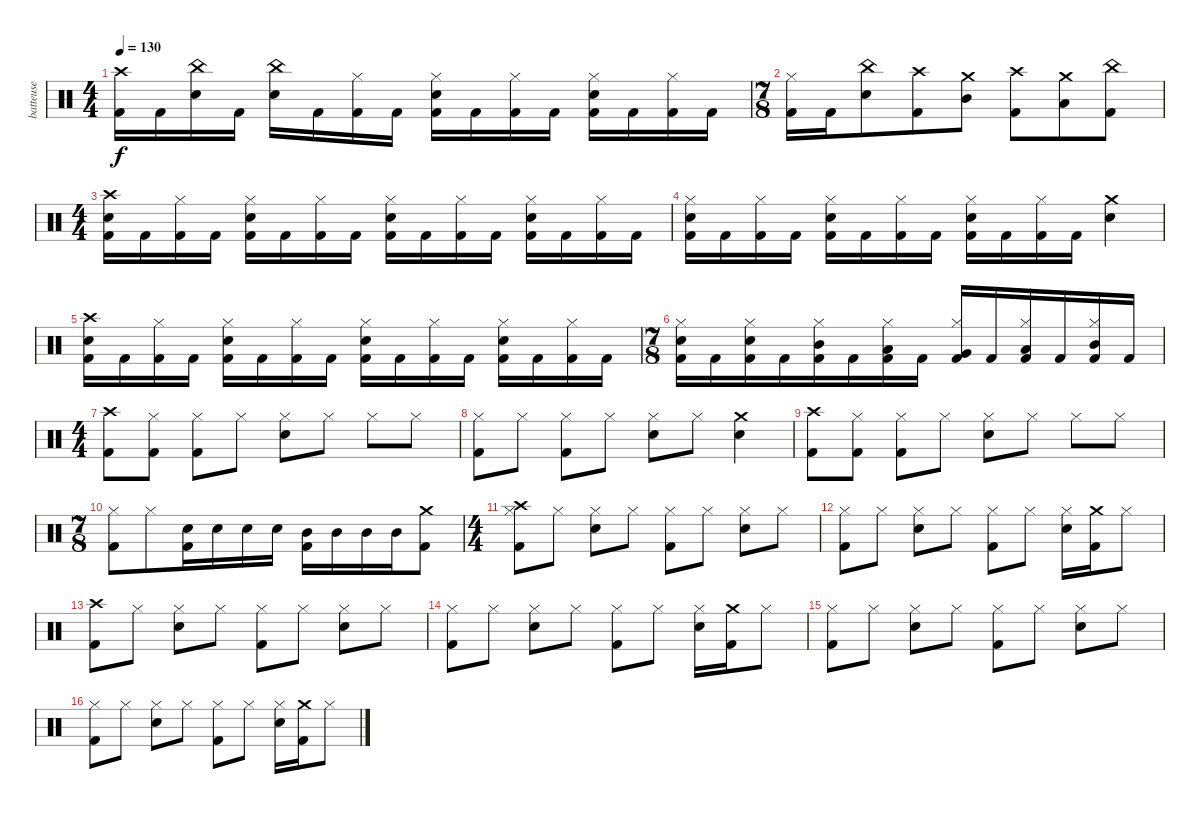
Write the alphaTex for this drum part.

\track ("batteuse" "batteuse") {instrument percussion}
\staff {score}
\articulation defaults
\ts (4 4)
\tempo 130
\clef neutral
\ks c
("Crash high (hit)" "Kick (hit) 2").16{dy f} "Kick (hit) 2".16 ("China (hit)" "Snare (hit) 2").16 "Kick (hit) 2".16 ("China (hit)" "Snare (hit) 2").16 "Kick (hit) 2".16 ("Kick (hit) 2" "Hi-Hat (closed)").16 "Kick (hit) 2".16 ("Snare (hit) 2" "Kick (hit) 2" "Hi-Hat (closed)").16 "Kick (hit) 2".16 ("Kick (hit) 2" "Hi-Hat (closed)").16 "Kick (hit) 2".16 ("Snare (hit) 2" "Kick (hit) 2" "Hi-Hat (closed)").16 "Kick (hit) 2".16 ("Kick (hit) 2" "Hi-Hat (closed)").16 "Kick (hit) 2".16 |
\ts (7 8)
("Kick (hit) 2" "Hi-Hat (closed)").16 "Kick (hit) 2".16 ("China (hit)" "Snare (hit) 2").8 ("Crash high (hit)" "Kick (hit) 2").8 ("Crash medium (hit)" "Mid Tom (hit)").8 ("Crash high (hit)" "Kick (hit) 2").8 ("Crash medium (hit)" "Low Tom (hit)").8 ("China (hit)" "Kick (hit) 2").8 |
\ts (4 4)
("Crash high (hit)" "Snare (hit) 2" "Kick (hit) 2").16 "Kick (hit) 2".16 ("Kick (hit) 2" "Hi-Hat (closed)").16 "Kick (hit) 2".16 ("Snare (hit) 2" "Kick (hit) 2" "Hi-Hat (closed)").16 "Kick (hit) 2".16 ("Kick (hit) 2" "Hi-Hat (closed)").16 "Kick (hit) 2".16 ("Snare (hit) 2" "Kick (hit) 2" "Hi-Hat (closed)").16 "Kick (hit) 2".16 ("Kick (hit) 2" "Hi-Hat (closed)").16 "Kick (hit) 2".16 ("Snare (hit) 2" "Kick (hit) 2" "Hi-Hat (closed)").16 "Kick (hit) 2".16 ("Kick (hit) 2" "Hi-Hat (closed)").16 "Kick (hit) 2".16 |
("Snare (hit) 2" "Kick (hit) 2" "Hi-Hat (closed)").16 "Kick (hit) 2".16 ("Kick (hit) 2" "Hi-Hat (closed)").16 "Kick (hit) 2".16 ("Snare (hit) 2" "Kick (hit) 2" "Hi-Hat (closed)").16 "Kick (hit) 2".16 ("Kick (hit) 2" "Hi-Hat (closed)").16 "Kick (hit) 2".16 ("Snare (hit) 2" "Kick (hit) 2" "Hi-Hat (closed)").16 "Kick (hit) 2".16 ("Kick (hit) 2" "Hi-Hat (closed)").16 "Kick (hit) 2".16 ("Crash medium (hit)" "Snare (hit) 2").4 |
("Crash high (hit)" "Snare (hit) 2" "Kick (hit) 2").16 "Kick (hit) 2".16 ("Kick (hit) 2" "Hi-Hat (closed)").16 "Kick (hit) 2".16 ("Snare (hit) 2" "Kick (hit) 2" "Hi-Hat (closed)").16 "Kick (hit) 2".16 ("Kick (hit) 2" "Hi-Hat (closed)").16 "Kick (hit) 2".16 ("Snare (hit) 2" "Kick (hit) 2" "Hi-Hat (closed)").16 "Kick (hit) 2".16 ("Kick (hit) 2" "Hi-Hat (closed)").16 "Kick (hit) 2".16 ("Snare (hit) 2" "Kick (hit) 2" "Hi-Hat (closed)").16 "Kick (hit) 2".16 ("Kick (hit) 2" "Hi-Hat (closed)").16 "Kick (hit) 2".16 |
\ts (7 8)
("Snare (hit) 2" "Kick (hit) 2" "Hi-Hat (closed)").16 "Kick (hit) 2".16 ("Snare (hit) 2" "Kick (hit) 2" "Hi-Hat (closed)").16 "Kick (hit) 2".16 ("Mid Tom (hit)" "Kick (hit) 2" "Hi-Hat (closed)").16 "Kick (hit) 2".16 ("Low Tom (hit)" "Kick (hit) 2" "Hi-Hat (closed)").16 "Kick (hit) 2".16 ("Very Low Tom (hit)" "Kick (hit) 2" "Hi-Hat (closed)").16 "Kick (hit) 2".16 ("Low Tom (hit)" "Kick (hit) 2" "Hi-Hat (closed)").16 "Kick (hit) 2".16 ("Mid Tom (hit)" "Kick (hit) 2" "Hi-Hat (closed)").16 "Kick (hit) 2".16 |
\ts (4 4)
("Crash high (hit)" "Kick (hit) 2").8 ("Kick (hit) 2" "Hi-Hat (closed)").8 ("Kick (hit) 2" "Hi-Hat (closed)").8 "Hi-Hat (closed)".8 ("Snare (hit) 2" "Hi-Hat (closed)").8 "Hi-Hat (closed)".8 "Hi-Hat (closed)".8 "Hi-Hat (closed)".8 |
("Kick (hit) 2" "Hi-Hat (closed)").8 "Hi-Hat (closed)".8 ("Kick (hit) 2" "Hi-Hat (closed)").8 "Hi-Hat (closed)".8 ("Snare (hit) 2" "Hi-Hat (closed)").8 "Hi-Hat (closed)".8 ("Crash medium (hit)" "Snare (hit) 2").4 |
("Crash high (hit)" "Kick (hit) 2").8 ("Kick (hit) 2" "Hi-Hat (closed)").8 ("Kick (hit) 2" "Hi-Hat (closed)").8 "Hi-Hat (closed)".8 ("Snare (hit) 2" "Hi-Hat (closed)").8 "Hi-Hat (closed)".8 "Hi-Hat (closed)".8 "Hi-Hat (closed)".8 |
\ts (7 8)
("Kick (hit) 2" "Hi-Hat (closed)").8 "Hi-Hat (closed)".8 ("Snare (hit) 2" "Kick (hit) 2").16 "Snare (hit) 2".16 "Snare (hit) 2".16 "Snare (hit) 2".16 ("Mid Tom (hit)" "Kick (hit) 2").16 "Mid Tom (hit)".16 "Mid Tom (hit)".16 "Mid Tom (hit)".16 ("Crash medium (hit)" "Kick (hit) 2").8 |
\ts (4 4)
("Crash high (hit)" "Kick (hit) 2" "Hi-Hat (closed)").8 "Hi-Hat (closed)".8 ("Snare (hit) 2" "Hi-Hat (closed)").8 "Hi-Hat (closed)".8 ("Kick (hit) 2" "Hi-Hat (closed)").8 "Hi-Hat (closed)".8 ("Snare (hit) 2" "Hi-Hat (closed)").8 "Hi-Hat (closed)".8 |
("Kick (hit) 2" "Hi-Hat (closed)").8 "Hi-Hat (closed)".8 ("Snare (hit) 2" "Hi-Hat (closed)").8 "Hi-Hat (closed)".8 ("Kick (hit) 2" "Hi-Hat (closed)").8 "Hi-Hat (closed)".8 ("Snare (hit) 2" "Hi-Hat (closed)").16 ("Crash medium (hit)" "Kick (hit) 2").16 "Hi-Hat (closed)".8 |
("Crash high (hit)" "Kick (hit) 2").8 "Hi-Hat (closed)".8 ("Snare (hit) 2" "Hi-Hat (closed)").8 "Hi-Hat (closed)".8 ("Kick (hit) 2" "Hi-Hat (closed)").8 "Hi-Hat (closed)".8 ("Snare (hit) 2" "Hi-Hat (closed)").8 "Hi-Hat (closed)".8 |
("Kick (hit) 2" "Hi-Hat (closed)").8 "Hi-Hat (closed)".8 ("Snare (hit) 2" "Hi-Hat (closed)").8 "Hi-Hat (closed)".8 ("Kick (hit) 2" "Hi-Hat (closed)").8 "Hi-Hat (closed)".8 ("Snare (hit) 2" "Hi-Hat (closed)").16 ("Crash medium (hit)" "Kick (hit) 2").16 "Hi-Hat (closed)".8 |
("Kick (hit) 2" "Hi-Hat (closed)").8 "Hi-Hat (closed)".8 ("Snare (hit) 2" "Hi-Hat (closed)").8 "Hi-Hat (closed)".8 ("Kick (hit) 2" "Hi-Hat (closed)").8 "Hi-Hat (closed)".8 ("Snare (hit) 2" "Hi-Hat (closed)").8 "Hi-Hat (closed)".8 |
("Kick (hit) 2" "Hi-Hat (closed)").8 "Hi-Hat (closed)".8 ("Snare (hit) 2" "Hi-Hat (closed)").8 "Hi-Hat (closed)".8 ("Kick (hit) 2" "Hi-Hat (closed)").8 "Hi-Hat (closed)".8 ("Snare (hit) 2" "Hi-Hat (closed)").16 ("Crash medium (hit)" "Kick (hit) 2").16 "Hi-Hat (closed)".8
